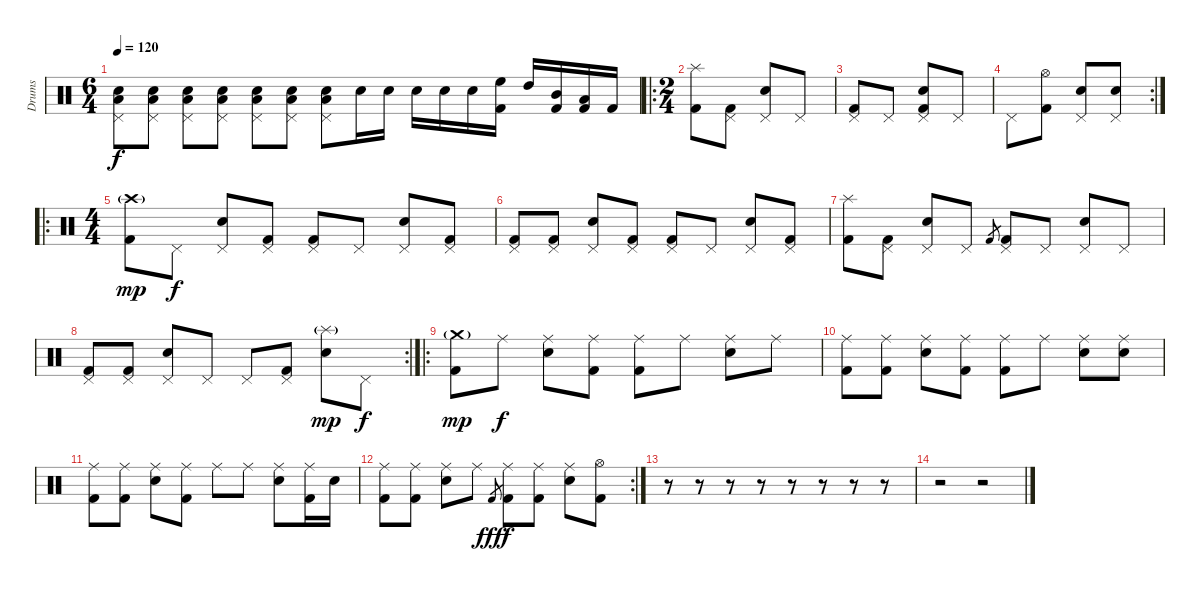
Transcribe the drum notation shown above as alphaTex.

\track ("Drums" "Drums") {instrument percussion}
\staff {score}
\articulation defaults
\ts (6 4)
\tempo 120
\clef neutral
\ks c
("Electric Snare (hit)" "Pedal Hi-Hat (hit)" "Low Floor Tom (hit)").8{dy f volume 5} ("Electric Snare (hit)" "Pedal Hi-Hat (hit)" "Low Floor Tom (hit)").8{volume 6} ("Electric Snare (hit)" "Pedal Hi-Hat (hit)" "Low Floor Tom (hit)").8{volume 7} ("Electric Snare (hit)" "Pedal Hi-Hat (hit)" "Low Floor Tom (hit)").8{volume 8} ("Electric Snare (hit)" "Pedal Hi-Hat (hit)" "Low Floor Tom (hit)").8{volume 9} ("Electric Snare (hit)" "Pedal Hi-Hat (hit)" "Low Floor Tom (hit)").8{volume 10} ("Electric Snare (hit)" "Pedal Hi-Hat (hit)" "Low Floor Tom (hit)").8{volume 11} "Electric Snare (hit)".16{volume 12} "Electric Snare (hit)".16{volume 13} "Electric Snare (hit)".16{volume 14} "Electric Snare (hit)".16{volume 15} "Electric Snare (hit)".16{volume 16} ("High Floor Tom (hit)" "Kick (hit) 2").16 "High Tom (hit)".16 ("Mid Tom (hit)" "Kick (hit) 2").16 ("Low Tom (hit)" "Kick (hit) 2").16 "Kick (hit) 2".16 |
\ro
\ts (2 4)
("Splash (hit)" "Kick (hit) 2").8 ("Pedal Hi-Hat (hit)" "Kick (hit) 2").8 ("Pedal Hi-Hat (hit)" "Electric Snare (hit)").8 "Pedal Hi-Hat (hit)".8 |
("Pedal Hi-Hat (hit)" "Kick (hit) 2").8 "Pedal Hi-Hat (hit)".8 ("Pedal Hi-Hat (hit)" "Electric Snare (hit)" "Kick (hit) 2").8 "Pedal Hi-Hat (hit)".8 |
\rc 2 "Pedal Hi-Hat (hit)".8
("Hi-Hat (open)" "Kick (hit) 2").8 ("Pedal Hi-Hat (hit)" "Electric Snare (hit)").8 ("Pedal Hi-Hat (hit)" "Electric Snare (hit)").8 |
\ro
\ts (4 4)
("Crash high (hit)"{g} "Kick (hit) 2").8{dy mp} "Pedal Hi-Hat (hit)".8{dy f} ("Pedal Hi-Hat (hit)" "Electric Snare (hit)").8 ("Pedal Hi-Hat (hit)" "Kick (hit) 2").8 ("Pedal Hi-Hat (hit)" "Kick (hit) 2").8 "Pedal Hi-Hat (hit)".8 ("Pedal Hi-Hat (hit)" "Electric Snare (hit)").8 ("Pedal Hi-Hat (hit)" "Kick (hit) 2").8 |
("Pedal Hi-Hat (hit)" "Kick (hit) 2").8 ("Pedal Hi-Hat (hit)" "Kick (hit) 2").8 ("Pedal Hi-Hat (hit)" "Electric Snare (hit)").8 ("Pedal Hi-Hat (hit)" "Kick (hit) 2").8 ("Pedal Hi-Hat (hit)" "Kick (hit) 2").8 "Pedal Hi-Hat (hit)".8 ("Pedal Hi-Hat (hit)" "Electric Snare (hit)").8 ("Pedal Hi-Hat (hit)" "Kick (hit) 2").8 |
("Splash (hit)" "Kick (hit) 2").8 ("Pedal Hi-Hat (hit)" "Kick (hit) 2").8 ("Pedal Hi-Hat (hit)" "Electric Snare (hit)").8 "Pedal Hi-Hat (hit)".8 "Kick (hit) 2".8{gr} ("Pedal Hi-Hat (hit)" "Kick (hit) 2").8 "Pedal Hi-Hat (hit)".8 ("Pedal Hi-Hat (hit)" "Electric Snare (hit)").8 "Pedal Hi-Hat (hit)".8 |
\rc 2
("Pedal Hi-Hat (hit)" "Kick (hit) 2").8 ("Pedal Hi-Hat (hit)" "Kick (hit) 2").8 ("Pedal Hi-Hat (hit)" "Electric Snare (hit)").8 "Pedal Hi-Hat (hit)".8 "Pedal Hi-Hat (hit)".8 ("Pedal Hi-Hat (hit)" "Kick (hit) 2").8 ("Splash (hit)"{g} "Electric Snare (hit)").8{dy mp} "Pedal Hi-Hat (hit)".8{dy f} |
\ro
("Crash medium (hit)"{g} "Kick (hit) 2").8{dy mp} "Ride (middle)".8{dy f} ("Ride (middle)" "Electric Snare (hit)").8 ("Ride (middle)" "Kick (hit) 2").8 ("Ride (middle)" "Kick (hit) 2").8 "Ride (middle)".8 ("Ride (middle)" "Electric Snare (hit)").8 "Ride (middle)".8 |
("Ride (middle)" "Kick (hit) 2").8 ("Ride (middle)" "Kick (hit) 2").8 ("Ride (middle)" "Electric Snare (hit)").8 ("Ride (middle)" "Kick (hit) 2").8 ("Ride (middle)" "Kick (hit) 2").8 "Ride (middle)".8 ("Ride (middle)" "Electric Snare (hit)").8 ("Ride (middle)" "Electric Snare (hit)").8 |
("Ride (middle)" "Kick (hit) 2").8 ("Ride (middle)" "Kick (hit) 2").8 ("Ride (middle)" "Electric Snare (hit)").8 ("Ride (middle)" "Kick (hit) 2").8 "Ride (middle)".8 "Ride (middle)".8 ("Ride (middle)" "Electric Snare (hit)").8 ("Ride (middle)" "Kick (hit) 2").16 "Electric Snare (hit)".16 |
\rc 2
("Ride (middle)" "Kick (hit) 2").8 ("Ride (middle)" "Kick (hit) 2").8 ("Ride (middle)" "Electric Snare (hit)").8 "Ride (middle)".8 "Kick (hit) 2".8{gr dy fff} ("Ride (middle)" "Kick (hit) 2").8{dy f} ("Ride (middle)" "Kick (hit) 2").8 ("Ride (middle)" "Electric Snare (hit)").8 ("Hi-Hat (open)" "Kick (hit) 2").8 |
r.8 r.8 r.8 r.8 r.8 r.8 r.8 r.8 |
r.2 r.2
